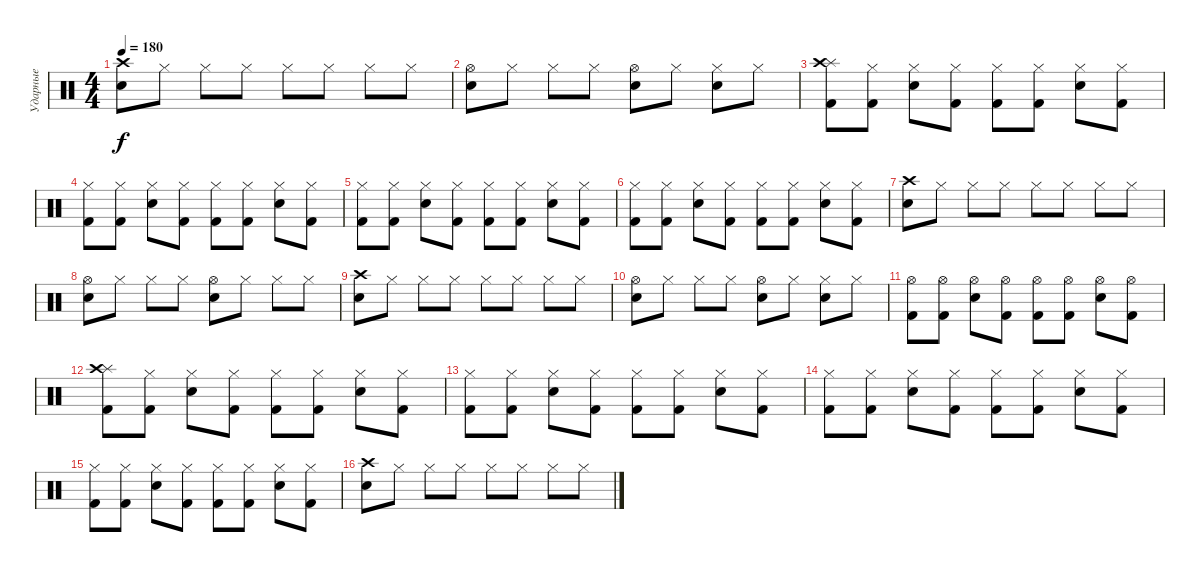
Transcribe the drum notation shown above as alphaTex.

\track ("Ударные" "Ударные") {instrument percussion}
\staff {score}
\articulation defaults
\ts (4 4)
\tempo 180
\clef neutral
\ks c
("Electric Snare (hit)" "Crash high (hit)").8{dy f} "Hi-Hat (closed)".8 "Hi-Hat (closed)".8 "Hi-Hat (closed)".8 "Hi-Hat (closed)".8 "Hi-Hat (closed)".8 "Hi-Hat (closed)".8 "Hi-Hat (closed)".8 |
("Electric Snare (hit)" "Hi-Hat (open)").8 "Hi-Hat (closed)".8 "Hi-Hat (closed)".8 "Hi-Hat (closed)".8 ("Snare (hit) 2" "Hi-Hat (open)").8 "Hi-Hat (closed)".8 ("Snare (hit) 2" "Hi-Hat (closed)").8 "Hi-Hat (closed)".8 |
("Splash (hit)" "Crash high (hit)" "Kick (hit) 2").8 ("Hi-Hat (closed)" "Kick (hit) 2").8 ("Hi-Hat (closed)" "Snare (hit) 2").8 ("Kick (hit) 2" "Hi-Hat (closed)").8 ("Hi-Hat (closed)" "Kick (hit) 2").8 ("Hi-Hat (closed)" "Kick (hit) 2").8 ("Hi-Hat (closed)" "Snare (hit) 2").8 ("Kick (hit) 2" "Hi-Hat (closed)").8 |
("Hi-Hat (closed)" "Kick (hit) 2").8 ("Hi-Hat (closed)" "Kick (hit) 2").8 ("Hi-Hat (closed)" "Snare (hit) 2").8 ("Kick (hit) 2" "Hi-Hat (closed)").8 ("Hi-Hat (closed)" "Kick (hit) 2").8 ("Hi-Hat (closed)" "Kick (hit) 2").8 ("Hi-Hat (closed)" "Snare (hit) 2").8 ("Kick (hit) 2" "Hi-Hat (closed)").8 |
("Hi-Hat (closed)" "Kick (hit) 2").8 ("Hi-Hat (closed)" "Kick (hit) 2").8 ("Hi-Hat (closed)" "Snare (hit) 2").8 ("Kick (hit) 2" "Hi-Hat (closed)").8 ("Hi-Hat (closed)" "Kick (hit) 2").8 ("Hi-Hat (closed)" "Kick (hit) 2").8 ("Hi-Hat (closed)" "Snare (hit) 2").8 ("Kick (hit) 2" "Hi-Hat (closed)").8 |
("Hi-Hat (closed)" "Kick (hit) 2").8 ("Hi-Hat (closed)" "Kick (hit) 2").8 ("Hi-Hat (closed)" "Snare (hit) 2").8 ("Kick (hit) 2" "Hi-Hat (closed)").8 ("Hi-Hat (closed)" "Kick (hit) 2").8 ("Hi-Hat (closed)" "Kick (hit) 2").8 ("Hi-Hat (closed)" "Snare (hit) 2").8 ("Kick (hit) 2" "Hi-Hat (closed)").8 |
("Electric Snare (hit)" "Crash high (hit)").8 "Hi-Hat (closed)".8 "Hi-Hat (closed)".8 "Hi-Hat (closed)".8 "Hi-Hat (closed)".8 "Hi-Hat (closed)".8 "Hi-Hat (closed)".8 "Hi-Hat (closed)".8 |
("Electric Snare (hit)" "Hi-Hat (open)").8 "Hi-Hat (closed)".8 "Hi-Hat (closed)".8 "Hi-Hat (closed)".8 ("Snare (hit) 2" "Hi-Hat (open)").8 "Hi-Hat (closed)".8 "Hi-Hat (closed)".8 "Hi-Hat (closed)".8 |
("Electric Snare (hit)" "Crash high (hit)").8 "Hi-Hat (closed)".8 "Hi-Hat (closed)".8 "Hi-Hat (closed)".8 "Hi-Hat (closed)".8 "Hi-Hat (closed)".8 "Hi-Hat (closed)".8 "Hi-Hat (closed)".8 |
("Electric Snare (hit)" "Hi-Hat (open)").8 "Hi-Hat (closed)".8 "Hi-Hat (closed)".8 "Hi-Hat (closed)".8 ("Snare (hit) 2" "Hi-Hat (open)").8 "Hi-Hat (closed)".8 ("Snare (hit) 2" "Hi-Hat (closed)").8 "Hi-Hat (closed)".8 |
("Hi-Hat (open)" "Kick (hit) 2").8 ("Hi-Hat (open)" "Kick (hit) 2").8 ("Hi-Hat (open)" "Electric Snare (hit)").8 ("Hi-Hat (open)" "Kick (hit) 2").8 ("Hi-Hat (open)" "Kick (hit) 2").8 ("Hi-Hat (open)" "Kick (hit) 2").8 ("Hi-Hat (open)" "Snare (hit) 2").8 ("Hi-Hat (open)" "Kick (hit) 2").8 |
("Splash (hit)" "Crash high (hit)" "Kick (hit) 2").8 ("Hi-Hat (closed)" "Kick (hit) 2").8 ("Hi-Hat (closed)" "Snare (hit) 2").8 ("Kick (hit) 2" "Hi-Hat (closed)").8 ("Hi-Hat (closed)" "Kick (hit) 2").8 ("Hi-Hat (closed)" "Kick (hit) 2").8 ("Hi-Hat (closed)" "Snare (hit) 2").8 ("Kick (hit) 2" "Hi-Hat (closed)").8 |
("Hi-Hat (closed)" "Kick (hit) 2").8 ("Hi-Hat (closed)" "Kick (hit) 2").8 ("Hi-Hat (closed)" "Snare (hit) 2").8 ("Kick (hit) 2" "Hi-Hat (closed)").8 ("Hi-Hat (closed)" "Kick (hit) 2").8 ("Hi-Hat (closed)" "Kick (hit) 2").8 ("Hi-Hat (closed)" "Snare (hit) 2").8 ("Kick (hit) 2" "Hi-Hat (closed)").8 |
("Hi-Hat (closed)" "Kick (hit) 2").8 ("Hi-Hat (closed)" "Kick (hit) 2").8 ("Hi-Hat (closed)" "Snare (hit) 2").8 ("Kick (hit) 2" "Hi-Hat (closed)").8 ("Hi-Hat (closed)" "Kick (hit) 2").8 ("Hi-Hat (closed)" "Kick (hit) 2").8 ("Hi-Hat (closed)" "Snare (hit) 2").8 ("Kick (hit) 2" "Hi-Hat (closed)").8 |
("Hi-Hat (closed)" "Kick (hit) 2").8 ("Hi-Hat (closed)" "Kick (hit) 2").8 ("Hi-Hat (closed)" "Snare (hit) 2").8 ("Kick (hit) 2" "Hi-Hat (closed)").8 ("Hi-Hat (closed)" "Kick (hit) 2").8 ("Hi-Hat (closed)" "Kick (hit) 2").8 ("Hi-Hat (closed)" "Snare (hit) 2").8 ("Kick (hit) 2" "Hi-Hat (closed)").8 |
("Electric Snare (hit)" "Crash high (hit)").8 "Hi-Hat (closed)".8 "Hi-Hat (closed)".8 "Hi-Hat (closed)".8 "Hi-Hat (closed)".8 "Hi-Hat (closed)".8 "Hi-Hat (closed)".8 "Hi-Hat (closed)".8
